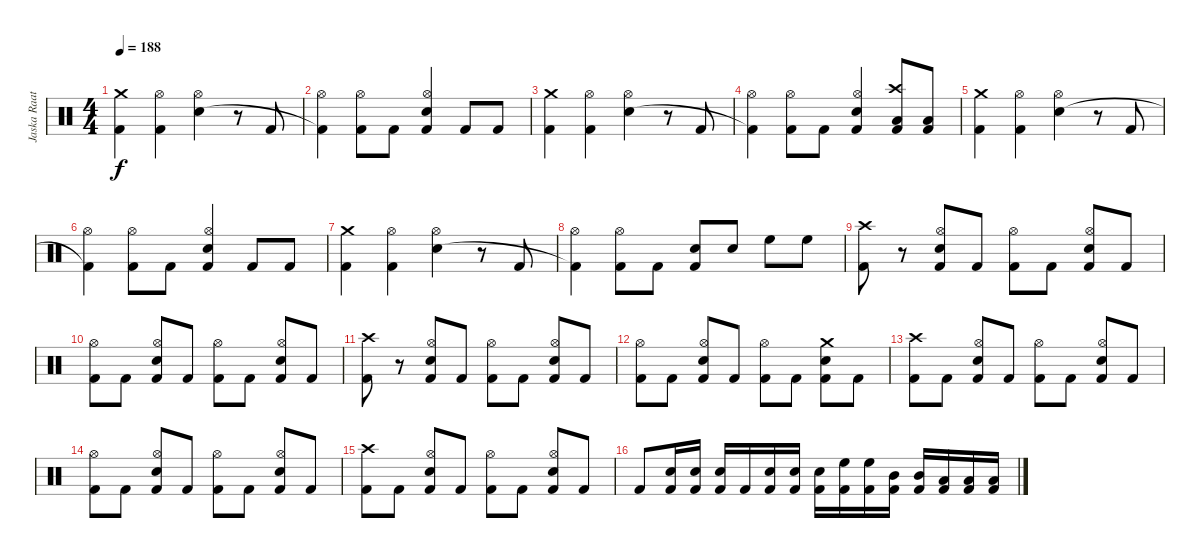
\track ("Jaska Raatikainen" "Jaska Raat") {instrument percussion}
\staff {score}
\articulation defaults
\ts (4 4)
\tempo 188
\clef neutral
\ks c
("Crash medium (hit)" "Kick (hit) 2").4{dy f} ("Hi-Hat (open)" "Kick (hit) 2").4 ("Hi-Hat (open)" "Electric Snare (hit)").4 r.8 "Kick (hit) 2".8 |
("Hi-Hat (open)" "Kick (hit) 2"{t}).4 ("Hi-Hat (open)" "Kick (hit) 2").8 "Kick (hit) 2".8 ("Hi-Hat (open)" "Electric Snare (hit)" "Kick (hit) 2").4 "Kick (hit) 2".8 "Kick (hit) 2".8 |
("Crash medium (hit)" "Kick (hit) 2").4 ("Hi-Hat (open)" "Kick (hit) 2").4 ("Hi-Hat (open)" "Electric Snare (hit)").4 r.8 "Kick (hit) 2".8 |
("Hi-Hat (open)" "Kick (hit) 2"{t}).4 ("Hi-Hat (open)" "Kick (hit) 2").8 "Kick (hit) 2".8 ("Hi-Hat (open)" "Electric Snare (hit)" "Kick (hit) 2").4 ("Crash high (hit)" "Low Tom (hit)" "Kick (hit) 2").8 ("Low Tom (hit)" "Kick (hit) 2").8 |
("Crash medium (hit)" "Kick (hit) 2").4 ("Hi-Hat (open)" "Kick (hit) 2").4 ("Hi-Hat (open)" "Electric Snare (hit)").4 r.8 "Kick (hit) 2".8 |
("Hi-Hat (open)" "Kick (hit) 2"{t}).4 ("Hi-Hat (open)" "Kick (hit) 2").8 "Kick (hit) 2".8 ("Hi-Hat (open)" "Electric Snare (hit)" "Kick (hit) 2").4 "Kick (hit) 2".8 "Kick (hit) 2".8 |
("Crash medium (hit)" "Kick (hit) 2").4 ("Hi-Hat (open)" "Kick (hit) 2").4 ("Hi-Hat (open)" "Electric Snare (hit)").4 r.8 "Kick (hit) 2".8 |
("Hi-Hat (open)" "Kick (hit) 2"{t}).4 ("Hi-Hat (open)" "Kick (hit) 2").8 "Kick (hit) 2".8 ("Electric Snare (hit)" "Kick (hit) 2").8 "Electric Snare (hit)".8 "High Floor Tom (hit)".8 "High Floor Tom (hit)".8 |
("Crash high (hit)" "Kick (hit) 2").8 r.8 ("Hi-Hat (open)" "Electric Snare (hit)" "Kick (hit) 2").8 "Kick (hit) 2".8 ("Hi-Hat (open)" "Kick (hit) 2").8 "Kick (hit) 2".8 ("Hi-Hat (open)" "Electric Snare (hit)" "Kick (hit) 2").8 "Kick (hit) 2".8 |
("Hi-Hat (open)" "Kick (hit) 2").8 "Kick (hit) 2".8 ("Hi-Hat (open)" "Electric Snare (hit)" "Kick (hit) 2").8 "Kick (hit) 2".8 ("Hi-Hat (open)" "Kick (hit) 2").8 "Kick (hit) 2".8 ("Hi-Hat (open)" "Electric Snare (hit)" "Kick (hit) 2").8 "Kick (hit) 2".8 |
("Crash high (hit)" "Kick (hit) 2").8 r.8 ("Hi-Hat (open)" "Electric Snare (hit)" "Kick (hit) 2").8 "Kick (hit) 2".8 ("Hi-Hat (open)" "Kick (hit) 2").8 "Kick (hit) 2".8 ("Hi-Hat (open)" "Electric Snare (hit)" "Kick (hit) 2").8 "Kick (hit) 2".8 |
("Hi-Hat (open)" "Kick (hit) 2").8 "Kick (hit) 2".8 ("Hi-Hat (open)" "Electric Snare (hit)" "Kick (hit) 2").8 "Kick (hit) 2".8 ("Hi-Hat (open)" "Kick (hit) 2").8 "Kick (hit) 2".8 ("Crash medium (hit)" "Electric Snare (hit)" "Kick (hit) 2").8 "Kick (hit) 2".8 |
("Crash high (hit)" "Kick (hit) 2").8 "Kick (hit) 2".8 ("Hi-Hat (open)" "Electric Snare (hit)" "Kick (hit) 2").8 "Kick (hit) 2".8 ("Hi-Hat (open)" "Kick (hit) 2").8 "Kick (hit) 2".8 ("Hi-Hat (open)" "Electric Snare (hit)" "Kick (hit) 2").8 "Kick (hit) 2".8 |
("Hi-Hat (open)" "Kick (hit) 2").8 "Kick (hit) 2".8 ("Hi-Hat (open)" "Electric Snare (hit)" "Kick (hit) 2").8 "Kick (hit) 2".8 ("Hi-Hat (open)" "Kick (hit) 2").8 "Kick (hit) 2".8 ("Hi-Hat (open)" "Electric Snare (hit)" "Kick (hit) 2").8 "Kick (hit) 2".8 |
("Crash high (hit)" "Kick (hit) 2").8 "Kick (hit) 2".8 ("Hi-Hat (open)" "Electric Snare (hit)" "Kick (hit) 2").8 "Kick (hit) 2".8 ("Hi-Hat (open)" "Kick (hit) 2").8 "Kick (hit) 2".8 ("Hi-Hat (open)" "Electric Snare (hit)" "Kick (hit) 2").8 "Kick (hit) 2".8 |
"Kick (hit) 2".8 ("Electric Snare (hit)" "Kick (hit) 2").16 ("Electric Snare (hit)" "Kick (hit) 2").16 ("Electric Snare (hit)" "Kick (hit) 2").16 "Kick (hit) 2".16 ("Electric Snare (hit)" "Kick (hit) 2").16 ("Electric Snare (hit)" "Kick (hit) 2").16 ("Electric Snare (hit)" "Kick (hit) 2").16 ("High Floor Tom (hit)" "Kick (hit) 2").16 ("High Floor Tom (hit)" "Kick (hit) 2").16 ("Mid Tom (hit)" "Kick (hit) 2").16 ("Mid Tom (hit)" "Kick (hit) 2").16 ("Low Tom (hit)" "Kick (hit) 2").16 ("Low Tom (hit)" "Kick (hit) 2").16 ("Low Tom (hit)" "Kick (hit) 2").16
